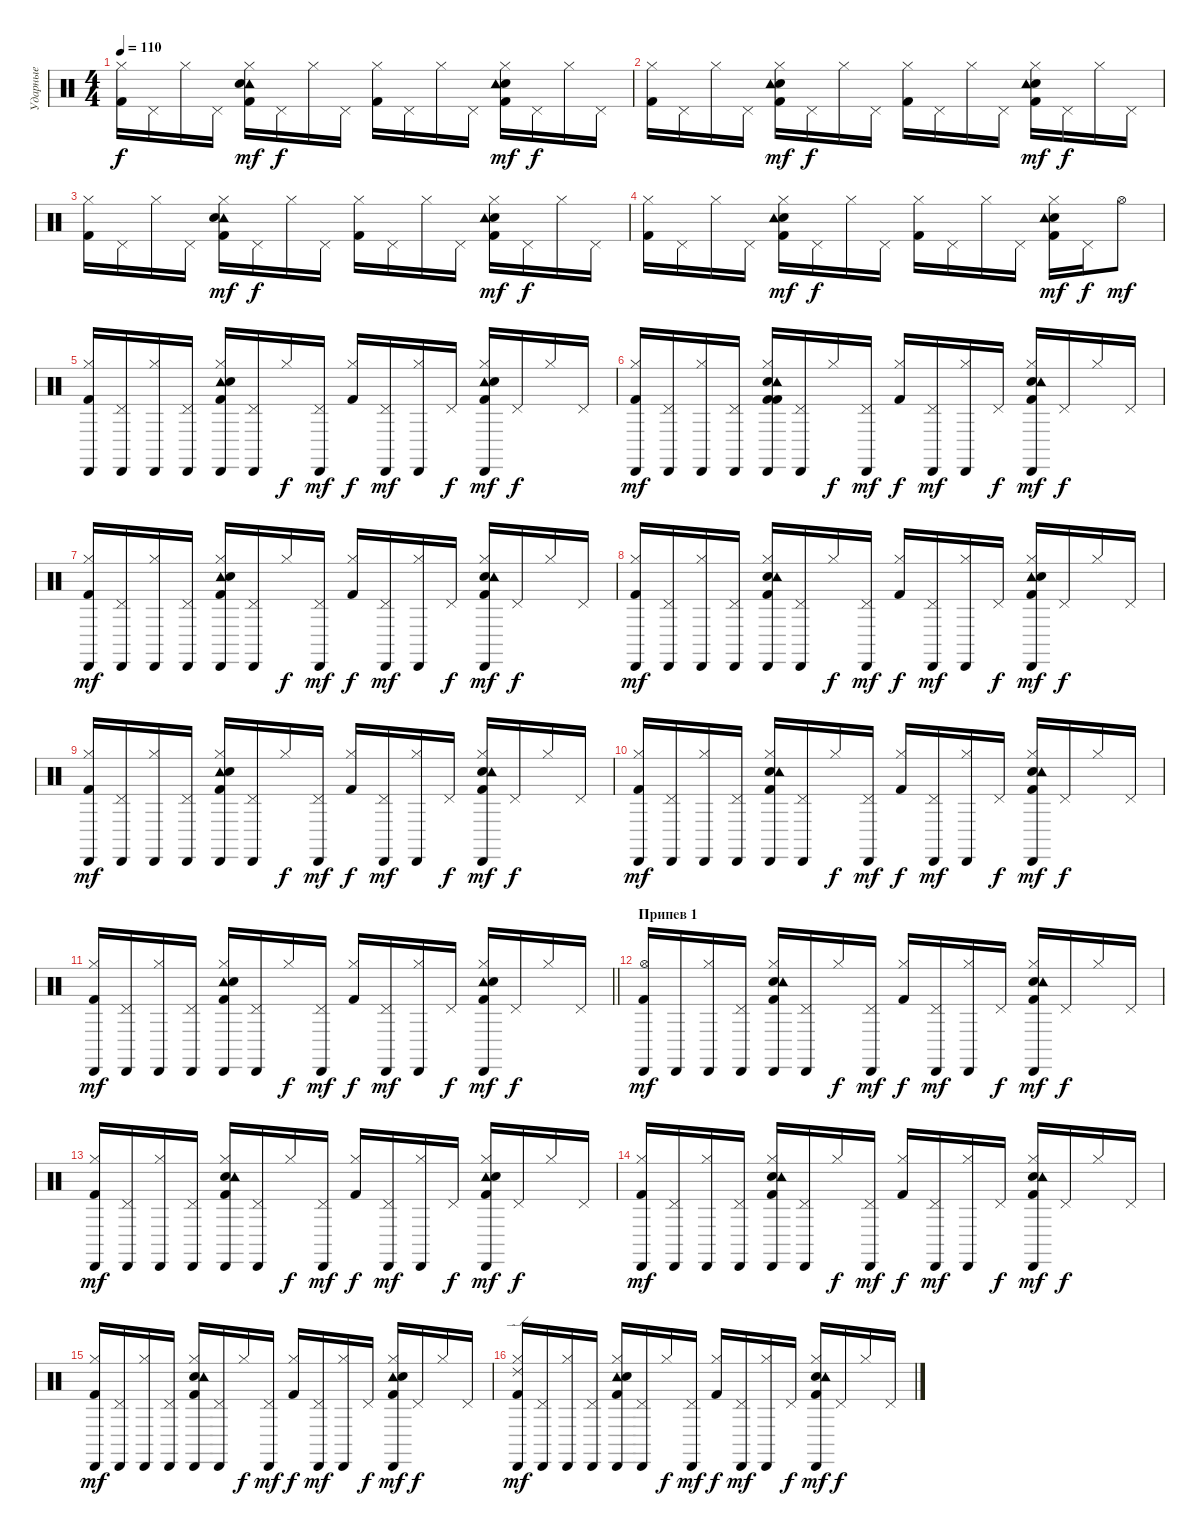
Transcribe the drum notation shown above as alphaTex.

\track ("Ударные" "Ударные") {instrument percussion}
\staff {score}
\articulation defaults
\ts (4 4)
\tempo 110
\clef neutral
\ks c
("Kick (hit) 2" "Hi-Hat (closed)").16{dy f} "Pedal Hi-Hat (hit)".16 "Hi-Hat (closed)".16 "Pedal Hi-Hat (hit)".16 ("Tambourine (hit)" "Snare (hit) 2" "Kick (hit) 2" "Hi-Hat (closed)").16{dy mf} "Pedal Hi-Hat (hit)".16{dy f} "Hi-Hat (closed)".16 "Pedal Hi-Hat (hit)".16 ("Kick (hit) 2" "Hi-Hat (closed)").16 "Pedal Hi-Hat (hit)".16 "Hi-Hat (closed)".16 "Pedal Hi-Hat (hit)".16 ("Kick (hit) 2" "Snare (hit) 2" "Tambourine (hit)" "Hi-Hat (closed)").16{dy mf} "Pedal Hi-Hat (hit)".16{dy f} "Hi-Hat (closed)".16 "Pedal Hi-Hat (hit)".16 |
("Kick (hit) 2" "Hi-Hat (closed)").16 "Pedal Hi-Hat (hit)".16 "Hi-Hat (closed)".16 "Pedal Hi-Hat (hit)".16 ("Snare (hit) 2" "Kick (hit) 2" "Tambourine (hit)" "Hi-Hat (closed)").16{dy mf} "Pedal Hi-Hat (hit)".16{dy f} "Hi-Hat (closed)".16 "Pedal Hi-Hat (hit)".16 ("Kick (hit) 2" "Hi-Hat (closed)").16 "Pedal Hi-Hat (hit)".16 "Hi-Hat (closed)".16 "Pedal Hi-Hat (hit)".16 ("Kick (hit) 2" "Snare (hit) 2" "Tambourine (hit)" "Hi-Hat (closed)").16{dy mf} "Pedal Hi-Hat (hit)".16{dy f} "Hi-Hat (closed)".16 "Pedal Hi-Hat (hit)".16 |
("Kick (hit) 2" "Hi-Hat (closed)").16 "Pedal Hi-Hat (hit)".16 "Hi-Hat (closed)".16 "Pedal Hi-Hat (hit)".16 ("Tambourine (hit)" "Snare (hit) 2" "Kick (hit) 2" "Hi-Hat (closed)").16{dy mf} "Pedal Hi-Hat (hit)".16{dy f} "Hi-Hat (closed)".16 "Pedal Hi-Hat (hit)".16 ("Kick (hit) 2" "Hi-Hat (closed)").16 "Pedal Hi-Hat (hit)".16 "Hi-Hat (closed)".16 "Pedal Hi-Hat (hit)".16 ("Snare (hit) 2" "Tambourine (hit)" "Kick (hit) 2" "Hi-Hat (closed)").16{dy mf} "Pedal Hi-Hat (hit)".16{dy f} "Hi-Hat (closed)".16 "Pedal Hi-Hat (hit)".16 |
("Kick (hit) 2" "Hi-Hat (closed)").16 "Pedal Hi-Hat (hit)".16 "Hi-Hat (closed)".16 "Pedal Hi-Hat (hit)".16 ("Snare (hit) 2" "Kick (hit) 2" "Tambourine (hit)" "Hi-Hat (closed)").16{dy mf} "Pedal Hi-Hat (hit)".16{dy f} "Hi-Hat (closed)".16 "Pedal Hi-Hat (hit)".16 ("Kick (hit) 2" "Hi-Hat (closed)").16 "Pedal Hi-Hat (hit)".16 "Hi-Hat (closed)".16 "Pedal Hi-Hat (hit)".16 ("Snare (hit) 2" "Tambourine (hit)" "Kick (hit) 2" "Hi-Hat (closed)").16{dy mf} "Pedal Hi-Hat (hit)".16{dy f} "Hi-Hat (open)".8{dy mf} |
("Kick (hit) 2" "Hi-Hat (closed)" "Cabasa (hit)").16 ("Pedal Hi-Hat (hit)" "Cabasa (hit)").16 ("Hi-Hat (closed)" "Cabasa (hit)").16 ("Pedal Hi-Hat (hit)" "Cabasa (hit)").16 ("Tambourine (hit)" "Kick (hit) 2" "Snare (hit) 2" "Hi-Hat (closed)" "Cabasa (hit)").16 ("Pedal Hi-Hat (hit)" "Cabasa (hit)").16 "Hi-Hat (closed)".16{dy f} ("Pedal Hi-Hat (hit)" "Cabasa (hit)").16{dy mf} ("Kick (hit) 2" "Hi-Hat (closed)").16{dy f} ("Pedal Hi-Hat (hit)" "Cabasa (hit)").16{dy mf} ("Hi-Hat (closed)" "Cabasa (hit)").16 "Pedal Hi-Hat (hit)".16{dy f} ("Kick (hit) 2" "Tambourine (hit)" "Snare (hit) 2" "Hi-Hat (closed)" "Cabasa (hit)").16{dy mf} "Pedal Hi-Hat (hit)".16{dy f} "Hi-Hat (closed)".16 "Pedal Hi-Hat (hit)".16 |
("Kick (hit) 2" "Hi-Hat (closed)" "Cabasa (hit)").16{dy mf} ("Pedal Hi-Hat (hit)" "Cabasa (hit)").16 ("Hi-Hat (closed)" "Cabasa (hit)").16 ("Pedal Hi-Hat (hit)" "Cabasa (hit)").16 ("Kick (hit) 2" "Snare (hit) 2" "Tambourine (hit)" "Kick (hit) 2" "Hi-Hat (closed)" "Cabasa (hit)").16 ("Pedal Hi-Hat (hit)" "Cabasa (hit)").16 "Hi-Hat (closed)".16{dy f} ("Pedal Hi-Hat (hit)" "Cabasa (hit)").16{dy mf} ("Kick (hit) 2" "Hi-Hat (closed)").16{dy f} ("Pedal Hi-Hat (hit)" "Cabasa (hit)").16{dy mf} ("Hi-Hat (closed)" "Cabasa (hit)").16 "Pedal Hi-Hat (hit)".16{dy f} ("Kick (hit) 2" "Snare (hit) 2" "Tambourine (hit)" "Hi-Hat (closed)" "Cabasa (hit)").16{dy mf} "Pedal Hi-Hat (hit)".16{dy f} "Hi-Hat (closed)".16 "Pedal Hi-Hat (hit)".16 |
("Kick (hit) 2" "Hi-Hat (closed)" "Cabasa (hit)").16{dy mf} ("Pedal Hi-Hat (hit)" "Cabasa (hit)").16 ("Hi-Hat (closed)" "Cabasa (hit)").16 ("Pedal Hi-Hat (hit)" "Cabasa (hit)").16 ("Tambourine (hit)" "Kick (hit) 2" "Snare (hit) 2" "Hi-Hat (closed)" "Cabasa (hit)").16 ("Pedal Hi-Hat (hit)" "Cabasa (hit)").16 "Hi-Hat (closed)".16{dy f} ("Pedal Hi-Hat (hit)" "Cabasa (hit)").16{dy mf} ("Kick (hit) 2" "Hi-Hat (closed)").16{dy f} ("Pedal Hi-Hat (hit)" "Cabasa (hit)").16{dy mf} ("Hi-Hat (closed)" "Cabasa (hit)").16 "Pedal Hi-Hat (hit)".16{dy f} ("Snare (hit) 2" "Kick (hit) 2" "Tambourine (hit)" "Hi-Hat (closed)" "Cabasa (hit)").16{dy mf} "Pedal Hi-Hat (hit)".16{dy f} "Hi-Hat (closed)".16 "Pedal Hi-Hat (hit)".16 |
("Kick (hit) 2" "Hi-Hat (closed)" "Cabasa (hit)").16{dy mf} ("Pedal Hi-Hat (hit)" "Cabasa (hit)").16 ("Hi-Hat (closed)" "Cabasa (hit)").16 ("Pedal Hi-Hat (hit)" "Cabasa (hit)").16 ("Snare (hit) 2" "Tambourine (hit)" "Kick (hit) 2" "Hi-Hat (closed)" "Cabasa (hit)").16 ("Pedal Hi-Hat (hit)" "Cabasa (hit)").16 "Hi-Hat (closed)".16{dy f} ("Pedal Hi-Hat (hit)" "Cabasa (hit)").16{dy mf} ("Kick (hit) 2" "Hi-Hat (closed)").16{dy f} ("Pedal Hi-Hat (hit)" "Cabasa (hit)").16{dy mf} ("Hi-Hat (closed)" "Cabasa (hit)").16 "Pedal Hi-Hat (hit)".16{dy f} ("Tambourine (hit)" "Snare (hit) 2" "Kick (hit) 2" "Hi-Hat (closed)" "Cabasa (hit)").16{dy mf} "Pedal Hi-Hat (hit)".16{dy f} "Hi-Hat (closed)".16 "Pedal Hi-Hat (hit)".16 |
("Kick (hit) 2" "Hi-Hat (closed)" "Cabasa (hit)").16{dy mf} ("Pedal Hi-Hat (hit)" "Cabasa (hit)").16 ("Hi-Hat (closed)" "Cabasa (hit)").16 ("Pedal Hi-Hat (hit)" "Cabasa (hit)").16 ("Tambourine (hit)" "Snare (hit) 2" "Kick (hit) 2" "Hi-Hat (closed)" "Cabasa (hit)").16 ("Pedal Hi-Hat (hit)" "Cabasa (hit)").16 "Hi-Hat (closed)".16{dy f} ("Pedal Hi-Hat (hit)" "Cabasa (hit)").16{dy mf} ("Kick (hit) 2" "Hi-Hat (closed)").16{dy f} ("Pedal Hi-Hat (hit)" "Cabasa (hit)").16{dy mf} ("Hi-Hat (closed)" "Cabasa (hit)").16 "Pedal Hi-Hat (hit)".16{dy f} ("Snare (hit) 2" "Kick (hit) 2" "Tambourine (hit)" "Hi-Hat (closed)" "Cabasa (hit)").16{dy mf} "Pedal Hi-Hat (hit)".16{dy f} "Hi-Hat (closed)".16 "Pedal Hi-Hat (hit)".16 |
("Kick (hit) 2" "Hi-Hat (closed)" "Cabasa (hit)").16{dy mf} ("Pedal Hi-Hat (hit)" "Cabasa (hit)").16 ("Hi-Hat (closed)" "Cabasa (hit)").16 ("Pedal Hi-Hat (hit)" "Cabasa (hit)").16 ("Snare (hit) 2" "Tambourine (hit)" "Kick (hit) 2" "Hi-Hat (closed)" "Cabasa (hit)").16 ("Pedal Hi-Hat (hit)" "Cabasa (hit)").16 "Hi-Hat (closed)".16{dy f} ("Pedal Hi-Hat (hit)" "Cabasa (hit)").16{dy mf} ("Kick (hit) 2" "Hi-Hat (closed)").16{dy f} ("Pedal Hi-Hat (hit)" "Cabasa (hit)").16{dy mf} ("Hi-Hat (closed)" "Cabasa (hit)").16 "Pedal Hi-Hat (hit)".16{dy f} ("Snare (hit) 2" "Kick (hit) 2" "Tambourine (hit)" "Hi-Hat (closed)" "Cabasa (hit)").16{dy mf} "Pedal Hi-Hat (hit)".16{dy f} "Hi-Hat (closed)".16 "Pedal Hi-Hat (hit)".16 |
\barLineRight lightlight
("Kick (hit) 2" "Hi-Hat (closed)" "Cabasa (hit)").16{dy mf} ("Pedal Hi-Hat (hit)" "Cabasa (hit)").16 ("Hi-Hat (closed)" "Cabasa (hit)").16 ("Pedal Hi-Hat (hit)" "Cabasa (hit)").16 ("Kick (hit) 2" "Tambourine (hit)" "Snare (hit) 2" "Hi-Hat (closed)" "Cabasa (hit)").16 ("Pedal Hi-Hat (hit)" "Cabasa (hit)").16 "Hi-Hat (closed)".16{dy f} ("Pedal Hi-Hat (hit)" "Cabasa (hit)").16{dy mf} ("Kick (hit) 2" "Hi-Hat (closed)").16{dy f} ("Pedal Hi-Hat (hit)" "Cabasa (hit)").16{dy mf} ("Hi-Hat (closed)" "Cabasa (hit)").16 "Pedal Hi-Hat (hit)".16{dy f} ("Tambourine (hit)" "Snare (hit) 2" "Kick (hit) 2" "Hi-Hat (closed)" "Cabasa (hit)").16{dy mf} "Pedal Hi-Hat (hit)".16{dy f} "Hi-Hat (closed)".16 "Pedal Hi-Hat (hit)".16 |
\section ("" "Припев 1")
("Kick (hit) 2" "Hi-Hat (open)" "Cabasa (hit)").16{dy mf} "Cabasa (hit)".16 ("Hi-Hat (closed)" "Cabasa (hit)").16 ("Pedal Hi-Hat (hit)" "Cabasa (hit)").16 ("Snare (hit) 2" "Tambourine (hit)" "Kick (hit) 2" "Hi-Hat (closed)" "Cabasa (hit)").16 ("Pedal Hi-Hat (hit)" "Cabasa (hit)").16 "Hi-Hat (closed)".16{dy f} ("Pedal Hi-Hat (hit)" "Cabasa (hit)").16{dy mf} ("Kick (hit) 2" "Hi-Hat (closed)").16{dy f} ("Pedal Hi-Hat (hit)" "Cabasa (hit)").16{dy mf} ("Hi-Hat (closed)" "Cabasa (hit)").16 "Pedal Hi-Hat (hit)".16{dy f} ("Snare (hit) 2" "Kick (hit) 2" "Tambourine (hit)" "Hi-Hat (closed)" "Cabasa (hit)").16{dy mf} "Pedal Hi-Hat (hit)".16{dy f} "Hi-Hat (closed)".16 "Pedal Hi-Hat (hit)".16 |
("Kick (hit) 2" "Hi-Hat (closed)" "Cabasa (hit)").16{dy mf} ("Pedal Hi-Hat (hit)" "Cabasa (hit)").16 ("Hi-Hat (closed)" "Cabasa (hit)").16 ("Pedal Hi-Hat (hit)" "Cabasa (hit)").16 ("Snare (hit) 2" "Tambourine (hit)" "Kick (hit) 2" "Hi-Hat (closed)" "Cabasa (hit)").16 ("Pedal Hi-Hat (hit)" "Cabasa (hit)").16 "Hi-Hat (closed)".16{dy f} ("Pedal Hi-Hat (hit)" "Cabasa (hit)").16{dy mf} ("Kick (hit) 2" "Hi-Hat (closed)").16{dy f} ("Pedal Hi-Hat (hit)" "Cabasa (hit)").16{dy mf} ("Hi-Hat (closed)" "Cabasa (hit)").16 "Pedal Hi-Hat (hit)".16{dy f} ("Tambourine (hit)" "Snare (hit) 2" "Kick (hit) 2" "Hi-Hat (closed)" "Cabasa (hit)").16{dy mf} "Pedal Hi-Hat (hit)".16{dy f} "Hi-Hat (closed)".16 "Pedal Hi-Hat (hit)".16 |
("Kick (hit) 2" "Hi-Hat (closed)" "Cabasa (hit)").16{dy mf} ("Pedal Hi-Hat (hit)" "Cabasa (hit)").16 ("Hi-Hat (closed)" "Cabasa (hit)").16 ("Pedal Hi-Hat (hit)" "Cabasa (hit)").16 ("Kick (hit) 2" "Snare (hit) 2" "Tambourine (hit)" "Hi-Hat (closed)" "Cabasa (hit)").16 ("Pedal Hi-Hat (hit)" "Cabasa (hit)").16 "Hi-Hat (closed)".16{dy f} ("Pedal Hi-Hat (hit)" "Cabasa (hit)").16{dy mf} ("Kick (hit) 2" "Hi-Hat (closed)").16{dy f} ("Pedal Hi-Hat (hit)" "Cabasa (hit)").16{dy mf} ("Hi-Hat (closed)" "Cabasa (hit)").16 "Pedal Hi-Hat (hit)".16{dy f} ("Snare (hit) 2" "Kick (hit) 2" "Tambourine (hit)" "Hi-Hat (closed)" "Cabasa (hit)").16{dy mf} "Pedal Hi-Hat (hit)".16{dy f} "Hi-Hat (closed)".16 "Pedal Hi-Hat (hit)".16 |
("Kick (hit) 2" "Hi-Hat (closed)" "Cabasa (hit)").16{dy mf} ("Pedal Hi-Hat (hit)" "Cabasa (hit)").16 ("Hi-Hat (closed)" "Cabasa (hit)").16 ("Pedal Hi-Hat (hit)" "Cabasa (hit)").16 ("Kick (hit) 2" "Snare (hit) 2" "Tambourine (hit)" "Hi-Hat (closed)" "Cabasa (hit)").16 ("Pedal Hi-Hat (hit)" "Cabasa (hit)").16 "Hi-Hat (closed)".16{dy f} ("Pedal Hi-Hat (hit)" "Cabasa (hit)").16{dy mf} ("Kick (hit) 2" "Hi-Hat (closed)").16{dy f} ("Pedal Hi-Hat (hit)" "Cabasa (hit)").16{dy mf} ("Hi-Hat (closed)" "Cabasa (hit)").16 "Pedal Hi-Hat (hit)".16{dy f} ("Tambourine (hit)" "Snare (hit) 2" "Kick (hit) 2" "Hi-Hat (closed)" "Cabasa (hit)").16{dy mf} "Pedal Hi-Hat (hit)".16{dy f} "Hi-Hat (closed)".16 "Pedal Hi-Hat (hit)".16 |
("Kick (hit) 2" "Ride (edge) 2" "Hi-Hat (closed)" "Cabasa (hit)").16{dy mf} ("Pedal Hi-Hat (hit)" "Cabasa (hit)").16 ("Hi-Hat (closed)" "Cabasa (hit)").16 ("Pedal Hi-Hat (hit)" "Cabasa (hit)").16 ("Kick (hit) 2" "Tambourine (hit)" "Snare (hit) 2" "Hi-Hat (closed)" "Cabasa (hit)").16 ("Pedal Hi-Hat (hit)" "Cabasa (hit)").16 "Hi-Hat (closed)".16{dy f} ("Pedal Hi-Hat (hit)" "Cabasa (hit)").16{dy mf} ("Kick (hit) 2" "Hi-Hat (closed)").16{dy f} ("Pedal Hi-Hat (hit)" "Cabasa (hit)").16{dy mf} ("Hi-Hat (closed)" "Cabasa (hit)").16 "Pedal Hi-Hat (hit)".16{dy f} ("Snare (hit) 2" "Kick (hit) 2" "Tambourine (hit)" "Hi-Hat (closed)" "Cabasa (hit)").16{dy mf} "Pedal Hi-Hat (hit)".16{dy f} "Hi-Hat (closed)".16 "Pedal Hi-Hat (hit)".16
